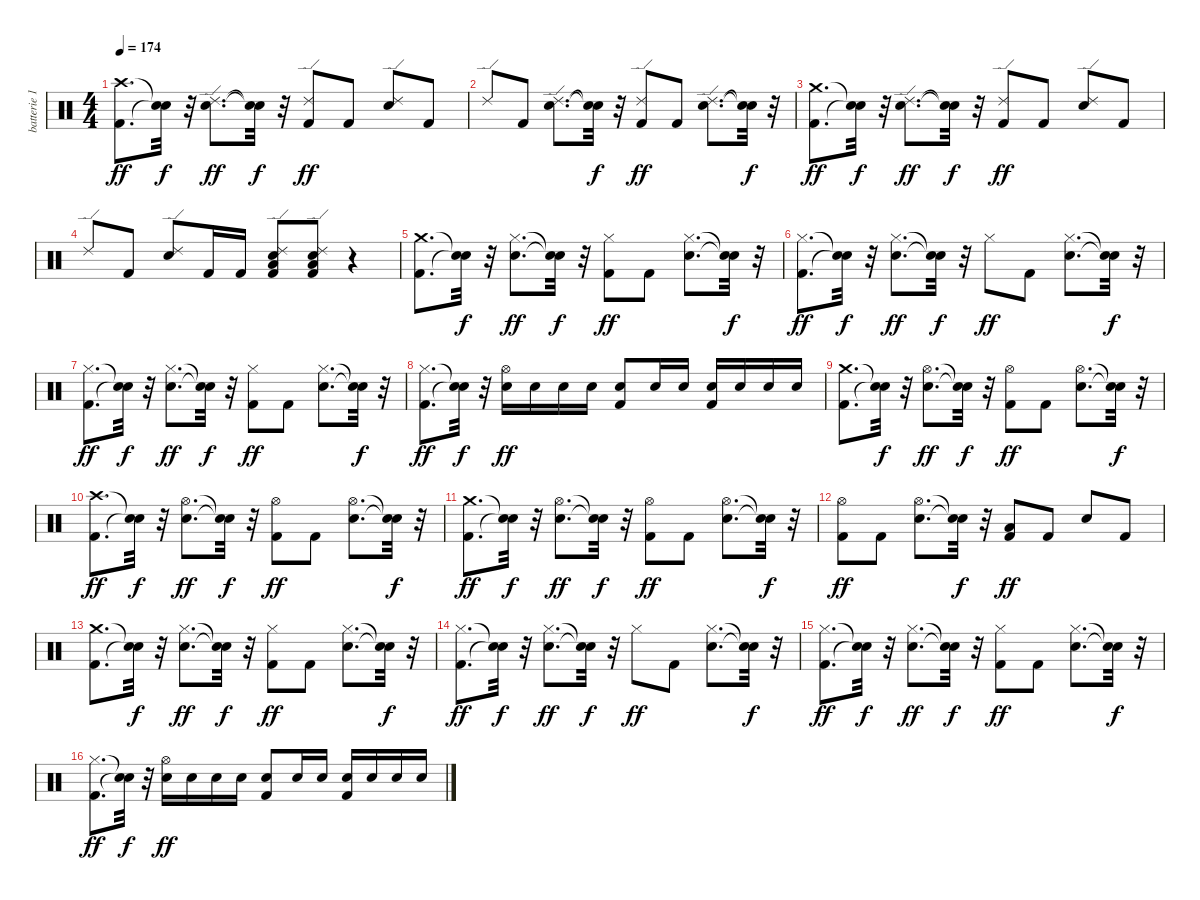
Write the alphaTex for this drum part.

\track ("batterie 1" "batterie 1") {instrument percussion}
\staff {score}
\articulation defaults
\ts (4 4)
\tempo 174
\clef neutral
\ks c
("Kick (hit) 2" "Crash high (hit)").8{d dy ff} ("Snare (hit)"{t} "Snare (hit)"{t}).32{dy f} r.32 ("Electric Snare (hit)" "Ride (edge) 2").8{d dy ff} ("Snare (hit)"{t} "Snare (hit)"{t}).32{dy f} r.32 ("Kick (hit) 2" "Ride (edge) 2").8{dy ff} "Kick (hit) 2".8 ("Electric Snare (hit)" "Ride (edge) 2").8 "Kick (hit) 2".8 |
"Ride (edge) 2".8 "Kick (hit) 2".8 ("Electric Snare (hit)" "Ride (edge) 2").8{d} ("Snare (hit)"{t} "Snare (hit)"{t}).32{dy f} r.32 ("Kick (hit) 2" "Ride (edge) 2").8{dy ff} "Kick (hit) 2".8 ("Electric Snare (hit)" "Ride (edge) 2").8{d} ("Snare (hit)"{t} "Snare (hit)"{t}).32{dy f} r.32 |
("Kick (hit) 2" "Crash medium (hit)").8{d dy ff} ("Snare (hit)"{t} "Snare (hit)"{t}).32{dy f} r.32 ("Electric Snare (hit)" "Ride (edge) 2").8{d dy ff} ("Snare (hit)"{t} "Snare (hit)"{t}).32{dy f} r.32 ("Kick (hit) 2" "Ride (edge) 2").8{dy ff} "Kick (hit) 2".8 ("Electric Snare (hit)" "Ride (edge) 2").8 "Kick (hit) 2".8 |
"Ride (edge) 2".8 "Kick (hit) 2".8 ("Electric Snare (hit)" "Ride (edge) 2").8 "Kick (hit) 2".16 "Kick (hit) 2".16 ("Kick (hit) 2" "Electric Snare (hit)" "Low Floor Tom (hit)" "Ride (edge) 2").8 ("Kick (hit) 2" "Electric Snare (hit)" "Low Floor Tom (hit)" "Ride (edge) 2").8 r.4 |
("Kick (hit) 2" "Crash medium (hit)").8{d} ("Snare (hit)"{t} "Snare (hit)"{t}).32{dy f} r.32 ("Electric Snare (hit)" "Hi-Hat (closed)").8{d dy ff} ("Snare (hit)"{t} "Snare (hit)"{t}).32{dy f} r.32 ("Kick (hit) 2" "Hi-Hat (closed)").8{dy ff} "Kick (hit) 2".8 ("Electric Snare (hit)" "Hi-Hat (closed)").8{d} ("Snare (hit)"{t} "Snare (hit)"{t}).32{dy f} r.32 |
("Kick (hit) 2" "Hi-Hat (closed)").8{d dy ff} ("Snare (hit)"{t} "Snare (hit)"{t}).32{dy f} r.32 ("Electric Snare (hit)" "Hi-Hat (closed)").8{d dy ff} ("Snare (hit)"{t} "Snare (hit)"{t}).32{dy f} r.32 "Hi-Hat (closed)".8{dy ff} "Kick (hit) 2".8 ("Electric Snare (hit)" "Hi-Hat (closed)").8{d} ("Snare (hit)"{t} "Snare (hit)"{t}).32{dy f} r.32 |
("Kick (hit) 2" "Hi-Hat (closed)").8{d dy ff} ("Snare (hit)"{t} "Snare (hit)"{t}).32{dy f} r.32 ("Electric Snare (hit)" "Hi-Hat (closed)").8{d dy ff} ("Snare (hit)"{t} "Snare (hit)"{t}).32{dy f} r.32 ("Kick (hit) 2" "Hi-Hat (closed)").8{dy ff} "Kick (hit) 2".8 ("Electric Snare (hit)" "Hi-Hat (closed)").8{d} ("Snare (hit)"{t} "Snare (hit)"{t}).32{dy f} r.32 |
("Kick (hit) 2" "Hi-Hat (closed)").8{d dy ff} ("Snare (hit)"{t} "Snare (hit)"{t}).32{dy f} r.32 ("Electric Snare (hit)" "Hi-Hat (open)").16{dy ff} "Electric Snare (hit)".16 "Electric Snare (hit)".16 "Electric Snare (hit)".16 ("Kick (hit) 2" "Electric Snare (hit)").8 "Electric Snare (hit)".16 "Electric Snare (hit)".16 ("Kick (hit) 2" "Electric Snare (hit)").16 "Electric Snare (hit)".16 "Electric Snare (hit)".16 "Electric Snare (hit)".16 |
("Kick (hit) 2" "Crash medium (hit)").8{d} ("Snare (hit)"{t} "Snare (hit)"{t}).32{dy f} r.32 ("Electric Snare (hit)" "Hi-Hat (open)").8{d dy ff} ("Snare (hit)"{t} "Snare (hit)"{t}).32{dy f} r.32 ("Kick (hit) 2" "Hi-Hat (open)").8{dy ff} "Kick (hit) 2".8 ("Electric Snare (hit)" "Hi-Hat (open)").8{d} ("Snare (hit)"{t} "Snare (hit)"{t}).32{dy f} r.32 |
("Kick (hit) 2" "Crash high (hit)").8{d dy ff} ("Snare (hit)"{t} "Snare (hit)"{t}).32{dy f} r.32 ("Electric Snare (hit)" "Hi-Hat (open)").8{d dy ff} ("Snare (hit)"{t} "Snare (hit)"{t}).32{dy f} r.32 ("Kick (hit) 2" "Hi-Hat (open)").8{dy ff} "Kick (hit) 2".8 ("Electric Snare (hit)" "Hi-Hat (open)").8{d} ("Snare (hit)"{t} "Snare (hit)"{t}).32{dy f} r.32 |
("Kick (hit) 2" "Crash medium (hit)").8{d dy ff} ("Snare (hit)"{t} "Snare (hit)"{t}).32{dy f} r.32 ("Electric Snare (hit)" "Hi-Hat (open)").8{d dy ff} ("Snare (hit)"{t} "Snare (hit)"{t}).32{dy f} r.32 ("Kick (hit) 2" "Hi-Hat (open)").8{dy ff} "Kick (hit) 2".8 ("Electric Snare (hit)" "Hi-Hat (open)").8{d} ("Snare (hit)"{t} "Snare (hit)"{t}).32{dy f} r.32 |
("Kick (hit) 2" "Hi-Hat (open)").8{dy ff} "Kick (hit) 2".8 ("Electric Snare (hit)" "Hi-Hat (open)").8{d} ("Snare (hit)"{t} "Snare (hit)"{t}).32{dy f} r.32 ("Kick (hit) 2" "Low Tom (hit)").8{dy ff} "Kick (hit) 2".8 "Electric Snare (hit)".8 "Kick (hit) 2".8 |
("Kick (hit) 2" "Crash medium (hit)").8{d} ("Snare (hit)"{t} "Snare (hit)"{t}).32{dy f} r.32 ("Electric Snare (hit)" "Hi-Hat (closed)").8{d dy ff} ("Snare (hit)"{t} "Snare (hit)"{t}).32{dy f} r.32 ("Kick (hit) 2" "Hi-Hat (closed)").8{dy ff} "Kick (hit) 2".8 ("Electric Snare (hit)" "Hi-Hat (closed)").8{d} ("Snare (hit)"{t} "Snare (hit)"{t}).32{dy f} r.32 |
("Kick (hit) 2" "Hi-Hat (closed)").8{d dy ff} ("Snare (hit)"{t} "Snare (hit)"{t}).32{dy f} r.32 ("Electric Snare (hit)" "Hi-Hat (closed)").8{d dy ff} ("Snare (hit)"{t} "Snare (hit)"{t}).32{dy f} r.32 "Hi-Hat (closed)".8{dy ff} "Kick (hit) 2".8 ("Electric Snare (hit)" "Hi-Hat (closed)").8{d} ("Snare (hit)"{t} "Snare (hit)"{t}).32{dy f} r.32 |
("Kick (hit) 2" "Hi-Hat (closed)").8{d dy ff} ("Snare (hit)"{t} "Snare (hit)"{t}).32{dy f} r.32 ("Electric Snare (hit)" "Hi-Hat (closed)").8{d dy ff} ("Snare (hit)"{t} "Snare (hit)"{t}).32{dy f} r.32 ("Kick (hit) 2" "Hi-Hat (closed)").8{dy ff} "Kick (hit) 2".8 ("Electric Snare (hit)" "Hi-Hat (closed)").8{d} ("Snare (hit)"{t} "Snare (hit)"{t}).32{dy f} r.32 |
("Kick (hit) 2" "Hi-Hat (closed)").8{d dy ff} ("Snare (hit)"{t} "Snare (hit)"{t}).32{dy f} r.32 ("Electric Snare (hit)" "Hi-Hat (open)").16{dy ff} "Electric Snare (hit)".16 "Electric Snare (hit)".16 "Electric Snare (hit)".16 ("Kick (hit) 2" "Electric Snare (hit)").8 "Electric Snare (hit)".16 "Electric Snare (hit)".16 ("Kick (hit) 2" "Electric Snare (hit)").16 "Electric Snare (hit)".16 "Electric Snare (hit)".16 "Electric Snare (hit)".16
